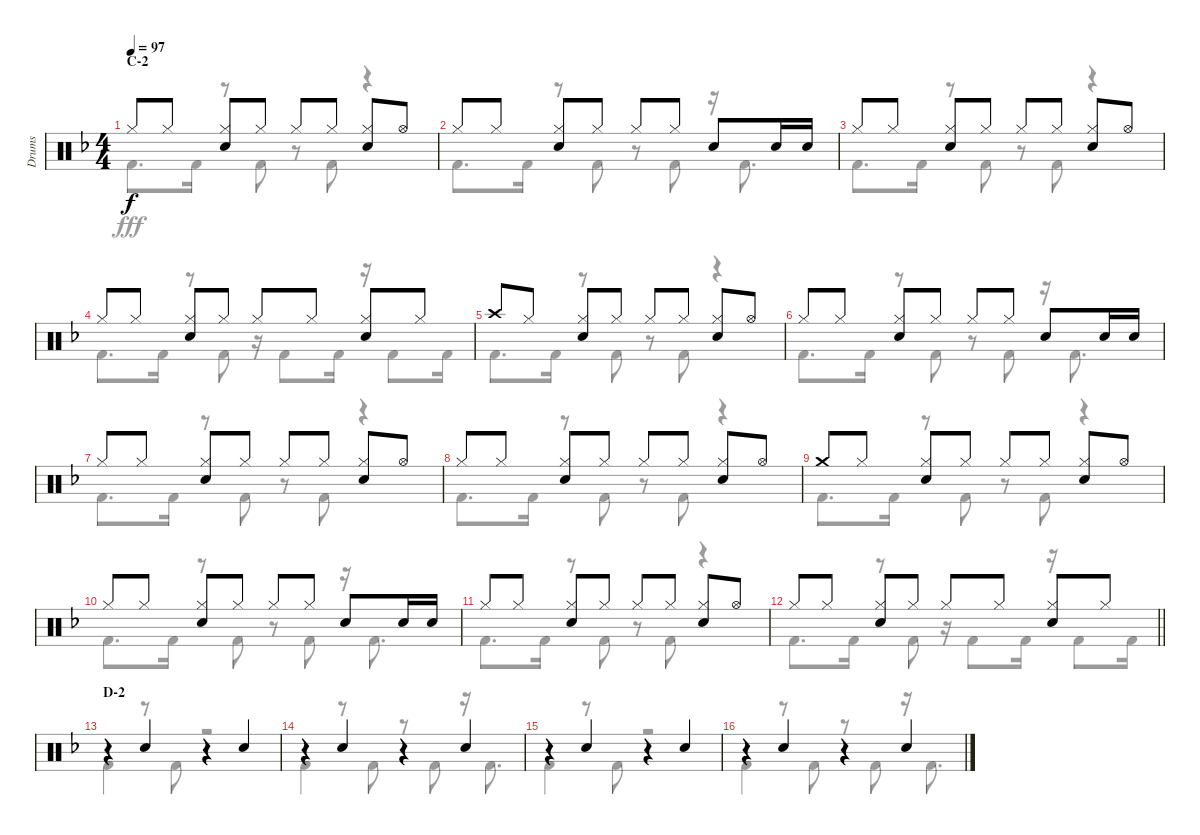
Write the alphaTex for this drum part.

\track ("Drums" "Drums") {instrument percussion}
\staff {score}
\articulation defaults
\voice
\ts (4 4)
\section ("" "C-2")
\tempo 97
\clef neutral
\ks f "Hi-Hat (closed)".8{dy f} "Hi-Hat (closed)".8
("Hi-Hat (closed)" "Snare (hit) 2").8 "Hi-Hat (closed)".8 "Hi-Hat (closed)".8 "Hi-Hat (closed)".8 ("Hi-Hat (closed)" "Snare (hit) 2").8 "Hi-Hat (open)".8 |
"Hi-Hat (closed)".8 "Hi-Hat (closed)".8 ("Hi-Hat (closed)" "Snare (hit) 2").8 "Hi-Hat (closed)".8 "Hi-Hat (closed)".8 "Hi-Hat (closed)".8 "Snare (hit) 2".8 "Snare (hit) 2".16 "Snare (hit) 2".16 |
"Hi-Hat (closed)".8 "Hi-Hat (closed)".8 ("Hi-Hat (closed)" "Snare (hit) 2").8 "Hi-Hat (closed)".8 "Hi-Hat (closed)".8 "Hi-Hat (closed)".8 ("Hi-Hat (closed)" "Snare (hit) 2").8 "Hi-Hat (open)".8 |
"Hi-Hat (closed)".8 "Hi-Hat (closed)".8 ("Hi-Hat (closed)" "Snare (hit) 2").8 "Hi-Hat (closed)".8 "Hi-Hat (closed)".8 "Hi-Hat (closed)".8 ("Hi-Hat (closed)" "Snare (hit) 2").8 "Hi-Hat (closed)".8 |
"Crash high (hit)".8 "Hi-Hat (closed)".8 ("Hi-Hat (closed)" "Snare (hit) 2").8 "Hi-Hat (closed)".8 "Hi-Hat (closed)".8 "Hi-Hat (closed)".8 ("Hi-Hat (closed)" "Snare (hit) 2").8 "Hi-Hat (open)".8 |
"Hi-Hat (closed)".8 "Hi-Hat (closed)".8 ("Hi-Hat (closed)" "Snare (hit) 2").8 "Hi-Hat (closed)".8 "Hi-Hat (closed)".8 "Hi-Hat (closed)".8 "Snare (hit) 2".8 "Snare (hit) 2".16 "Snare (hit) 2".16 |
"Hi-Hat (closed)".8 "Hi-Hat (closed)".8 ("Hi-Hat (closed)" "Snare (hit) 2").8 "Hi-Hat (closed)".8 "Hi-Hat (closed)".8 "Hi-Hat (closed)".8 ("Hi-Hat (closed)" "Snare (hit) 2").8 "Hi-Hat (open)".8 |
"Hi-Hat (closed)".8 "Hi-Hat (closed)".8 ("Hi-Hat (closed)" "Snare (hit) 2").8 "Hi-Hat (closed)".8 "Hi-Hat (closed)".8 "Hi-Hat (closed)".8 ("Hi-Hat (closed)" "Snare (hit) 2").8 "Hi-Hat (open)".8 |
"Crash medium (hit)".8 "Hi-Hat (closed)".8 ("Hi-Hat (closed)" "Snare (hit) 2").8 "Hi-Hat (closed)".8 "Hi-Hat (closed)".8 "Hi-Hat (closed)".8 ("Hi-Hat (closed)" "Snare (hit) 2").8 "Hi-Hat (open)".8 |
"Hi-Hat (closed)".8 "Hi-Hat (closed)".8 ("Hi-Hat (closed)" "Snare (hit) 2").8 "Hi-Hat (closed)".8 "Hi-Hat (closed)".8 "Hi-Hat (closed)".8 "Snare (hit) 2".8 "Snare (hit) 2".16 "Snare (hit) 2".16 |
"Hi-Hat (closed)".8 "Hi-Hat (closed)".8 ("Hi-Hat (closed)" "Snare (hit) 2").8 "Hi-Hat (closed)".8 "Hi-Hat (closed)".8 "Hi-Hat (closed)".8 ("Hi-Hat (closed)" "Snare (hit) 2").8 "Hi-Hat (open)".8 |
\barLineRight lightlight "Hi-Hat (closed)".8 "Hi-Hat (closed)".8
("Hi-Hat (closed)" "Snare (hit) 2").8 "Hi-Hat (closed)".8 "Hi-Hat (closed)".8 "Hi-Hat (closed)".8 ("Hi-Hat (closed)" "Snare (hit) 2").8 "Hi-Hat (closed)".8 |
\section ("" "D-2")
r.4 "Snare (hit) 2".4 r.4 "Snare (hit) 2".4 |
r.4 "Snare (hit) 2".4 r.4 "Snare (hit) 2".4 |
r.4 "Snare (hit) 2".4 r.4 "Snare (hit) 2".4 |
r.4 "Snare (hit) 2".4 r.4 "Snare (hit) 2".4
\voice
\clef neutral
\ottava regular
\simile none
\ks f "Kick (hit) 2".8{d dy fff} "Kick (hit) 2".16
r.8 "Kick (hit) 2".8 r.8 "Kick (hit) 2".8 r.4 |
"Kick (hit) 2".8{d} "Kick (hit) 2".16 r.8 "Kick (hit) 2".8 r.8 "Kick (hit) 2".8 r.16 "Kick (hit) 2".8{d} |
"Kick (hit) 2".8{d} "Kick (hit) 2".16 r.8 "Kick (hit) 2".8 r.8 "Kick (hit) 2".8 r.4 |
"Kick (hit) 2".8{d} "Kick (hit) 2".16 r.8 "Kick (hit) 2".8 r.16 "Kick (hit) 2".8 "Kick (hit) 2".16 r.16 "Kick (hit) 2".8 "Kick (hit) 2".16 |
"Kick (hit) 2".8{d} "Kick (hit) 2".16 r.8 "Kick (hit) 2".8 r.8 "Kick (hit) 2".8 r.4 |
"Kick (hit) 2".8{d} "Kick (hit) 2".16 r.8 "Kick (hit) 2".8 r.8 "Kick (hit) 2".8 r.16 "Kick (hit) 2".8{d} |
"Kick (hit) 2".8{d} "Kick (hit) 2".16 r.8 "Kick (hit) 2".8 r.8 "Kick (hit) 2".8 r.4 |
"Kick (hit) 2".8{d} "Kick (hit) 2".16 r.8 "Kick (hit) 2".8 r.8 "Kick (hit) 2".8 r.4 |
"Kick (hit) 2".8{d} "Kick (hit) 2".16 r.8 "Kick (hit) 2".8 r.8 "Kick (hit) 2".8 r.4 |
"Kick (hit) 2".8{d} "Kick (hit) 2".16 r.8 "Kick (hit) 2".8 r.8 "Kick (hit) 2".8 r.16 "Kick (hit) 2".8{d} |
"Kick (hit) 2".8{d} "Kick (hit) 2".16 r.8 "Kick (hit) 2".8 r.8 "Kick (hit) 2".8 r.4 |
\barLineRight lightlight "Kick (hit) 2".8{d} "Kick (hit) 2".16
r.8 "Kick (hit) 2".8 r.16 "Kick (hit) 2".8 "Kick (hit) 2".16 r.16 "Kick (hit) 2".8 "Kick (hit) 2".16 |
"Kick (hit) 2".4 r.8 "Kick (hit) 2".8 r.2 |
"Kick (hit) 2".4 r.8 "Kick (hit) 2".8 r.8 "Kick (hit) 2".8 r.16 "Kick (hit) 2".8{d} |
"Kick (hit) 2".4 r.8 "Kick (hit) 2".8 r.2 |
"Kick (hit) 2".4 r.8 "Kick (hit) 2".8 r.8 "Kick (hit) 2".8 r.16 "Kick (hit) 2".8{d}
